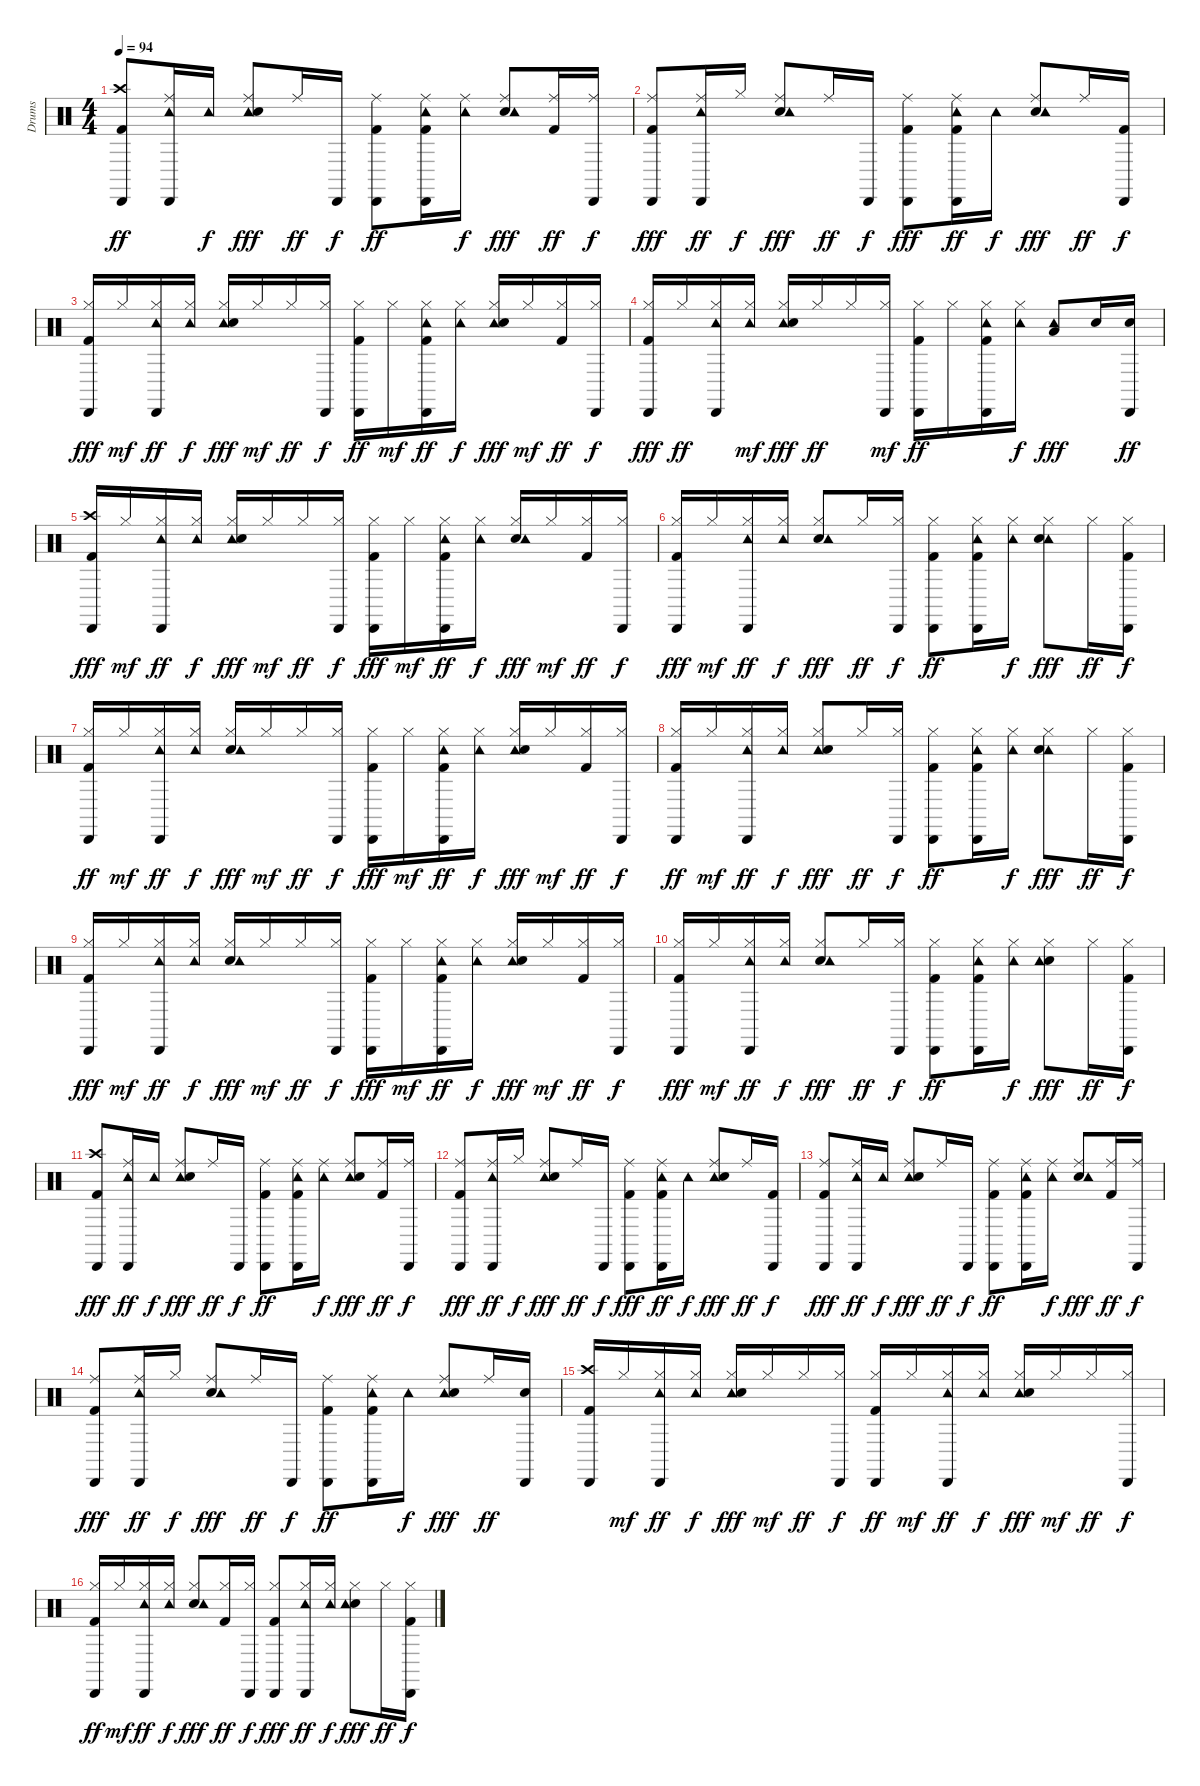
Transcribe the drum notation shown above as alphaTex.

\track ("Drums" "Drums") {instrument percussion}
\staff {score}
\articulation defaults
\ts (4 4)
\tempo 94
\clef neutral
\ks c
("Kick (hit) 2" "Crash high (hit)" "Cabasa (hit)").8{dy ff} ("Tambourine (hit)" "Ride (middle)" "Cabasa (hit)").16 "Tambourine (hit)".16{dy f} ("Ride (middle)" "Tambourine (hit)" "Snare (hit) 2").8{dy fff} "Ride (middle)".16{dy ff} "Cabasa (hit)".16{dy f} ("Kick (hit) 2" "Ride (middle)" "Cabasa (hit)").8{dy ff} ("Ride (middle)" "Cabasa (hit)" "Kick (hit) 2" "Tambourine (hit)").16 ("Ride (middle)" "Tambourine (hit)").16{dy f} ("Ride (middle)" "Snare (hit) 2" "Tambourine (hit)").8{dy fff} ("Kick (hit) 2" "Ride (middle)").16{dy ff} ("Cabasa (hit)" "Ride (middle)").16{dy f} |
("Cabasa (hit)" "Ride (middle)" "Kick (hit) 2").8{dy fff} ("Ride (middle)" "Tambourine (hit)" "Cabasa (hit)").16{dy ff} "Hi-Hat (closed)".16{dy f} ("Snare (hit) 2" "Ride (middle)" "Tambourine (hit)").8{dy fff} "Ride (middle)".16{dy ff} "Cabasa (hit)".16{dy f} ("Ride (middle)" "Cabasa (hit)" "Kick (hit) 2").8{dy fff} ("Ride (middle)" "Cabasa (hit)" "Tambourine (hit)" "Kick (hit) 2").16{dy ff} "Tambourine (hit)".16{dy f} ("Snare (hit) 2" "Ride (middle)" "Tambourine (hit)").8{dy fff} "Ride (middle)".16{dy ff} ("Kick (hit) 2" "Cabasa (hit)").16{dy f} |
("Hi-Hat (closed)" "Cabasa (hit)" "Kick (hit) 2").16{dy fff} "Hi-Hat (closed)".16{dy mf} ("Hi-Hat (closed)" "Tambourine (hit)" "Cabasa (hit)").16{dy ff} ("Tambourine (hit)" "Hi-Hat (closed)").16{dy f} ("Hi-Hat (closed)" "Tambourine (hit)" "Snare (hit) 2").16{dy fff} "Hi-Hat (closed)".16{dy mf} "Hi-Hat (closed)".16{dy ff} ("Hi-Hat (closed)" "Cabasa (hit)").16{dy f} ("Kick (hit) 2" "Hi-Hat (closed)" "Cabasa (hit)").16{dy ff} "Hi-Hat (closed)".16{dy mf} ("Cabasa (hit)" "Hi-Hat (closed)" "Tambourine (hit)" "Kick (hit) 2").16{dy ff} ("Hi-Hat (closed)" "Tambourine (hit)").16{dy f} ("Hi-Hat (closed)" "Tambourine (hit)" "Snare (hit) 2").16{dy fff} "Hi-Hat (closed)".16{dy mf} ("Hi-Hat (closed)" "Kick (hit) 2").16{dy ff} ("Hi-Hat (closed)" "Cabasa (hit)").16{dy f} |
("Cabasa (hit)" "Kick (hit) 2" "Hi-Hat (closed)").16{dy fff} "Hi-Hat (closed)".16{dy ff} ("Cabasa (hit)" "Hi-Hat (closed)" "Tambourine (hit)").16 ("Tambourine (hit)" "Hi-Hat (closed)").16{dy mf} ("Tambourine (hit)" "Snare (hit) 2" "Hi-Hat (closed)").16{dy fff} "Hi-Hat (closed)".16{dy ff} "Hi-Hat (closed)".16 ("Cabasa (hit)" "Hi-Hat (closed)").16{dy mf} ("Hi-Hat (closed)" "Kick (hit) 2" "Cabasa (hit)").16{dy ff} "Hi-Hat (closed)".16 ("Hi-Hat (closed)" "Kick (hit) 2" "Tambourine (hit)" "Cabasa (hit)").16 ("Tambourine (hit)" "Hi-Hat (closed)").16{dy f} ("Tambourine (hit)" "Low Floor Tom (hit)").8{dy fff} "Snare (hit) 2".16 ("Cabasa (hit)" "Snare (hit) 2").16{dy ff} |
("Cabasa (hit)" "Kick (hit) 2" "Crash high (hit)").16{dy fff} "Hi-Hat (closed)".16{dy mf} ("Tambourine (hit)" "Hi-Hat (closed)" "Cabasa (hit)").16{dy ff} ("Tambourine (hit)" "Hi-Hat (closed)").16{dy f} ("Tambourine (hit)" "Hi-Hat (closed)" "Snare (hit) 2").16{dy fff} "Hi-Hat (closed)".16{dy mf} "Hi-Hat (closed)".16{dy ff} ("Cabasa (hit)" "Hi-Hat (closed)").16{dy f} ("Cabasa (hit)" "Kick (hit) 2" "Hi-Hat (closed)").16{dy fff} "Hi-Hat (closed)".16{dy mf} ("Cabasa (hit)" "Tambourine (hit)" "Kick (hit) 2" "Hi-Hat (closed)").16{dy ff} ("Tambourine (hit)" "Hi-Hat (closed)").16{dy f} ("Snare (hit) 2" "Hi-Hat (closed)" "Tambourine (hit)").16{dy fff} "Hi-Hat (closed)".16{dy mf} ("Hi-Hat (closed)" "Kick (hit) 2").16{dy ff} ("Cabasa (hit)" "Hi-Hat (closed)").16{dy f} |
("Kick (hit) 2" "Cabasa (hit)" "Hi-Hat (closed)").16{dy fff} "Hi-Hat (closed)".16{dy mf} ("Hi-Hat (closed)" "Cabasa (hit)" "Tambourine (hit)").16{dy ff} ("Tambourine (hit)" "Hi-Hat (closed)").16{dy f} ("Hi-Hat (closed)" "Snare (hit) 2" "Tambourine (hit)").8{dy fff} "Hi-Hat (closed)".16{dy ff} ("Hi-Hat (closed)" "Cabasa (hit)").16{dy f} ("Kick (hit) 2" "Hi-Hat (closed)" "Cabasa (hit)").8{dy ff} ("Kick (hit) 2" "Tambourine (hit)" "Cabasa (hit)" "Hi-Hat (closed)").16 ("Tambourine (hit)" "Hi-Hat (closed)").16{dy f} ("Tambourine (hit)" "Snare (hit) 2" "Hi-Hat (closed)").8{dy fff} "Hi-Hat (closed)".16{dy ff} ("Kick (hit) 2" "Cabasa (hit)" "Hi-Hat (closed)").16{dy f} |
("Kick (hit) 2" "Hi-Hat (closed)" "Cabasa (hit)").16{dy ff} "Hi-Hat (closed)".16{dy mf} ("Cabasa (hit)" "Hi-Hat (closed)" "Tambourine (hit)").16{dy ff} ("Tambourine (hit)" "Hi-Hat (closed)").16{dy f} ("Hi-Hat (closed)" "Snare (hit) 2" "Tambourine (hit)").16{dy fff} "Hi-Hat (closed)".16{dy mf} "Hi-Hat (closed)".16{dy ff} ("Cabasa (hit)" "Hi-Hat (closed)").16{dy f} ("Cabasa (hit)" "Hi-Hat (closed)" "Kick (hit) 2").16{dy fff} "Hi-Hat (closed)".16{dy mf} ("Kick (hit) 2" "Cabasa (hit)" "Tambourine (hit)" "Hi-Hat (closed)").16{dy ff} ("Tambourine (hit)" "Hi-Hat (closed)").16{dy f} ("Tambourine (hit)" "Snare (hit) 2" "Hi-Hat (closed)").16{dy fff} "Hi-Hat (closed)".16{dy mf} ("Hi-Hat (closed)" "Kick (hit) 2").16{dy ff} ("Cabasa (hit)" "Hi-Hat (closed)").16{dy f} |
("Kick (hit) 2" "Hi-Hat (closed)" "Cabasa (hit)").16{dy ff} "Hi-Hat (closed)".16{dy mf} ("Hi-Hat (closed)" "Tambourine (hit)" "Cabasa (hit)").16{dy ff} ("Hi-Hat (closed)" "Tambourine (hit)").16{dy f} ("Tambourine (hit)" "Hi-Hat (closed)" "Snare (hit) 2").8{dy fff} "Hi-Hat (closed)".16{dy ff} ("Cabasa (hit)" "Hi-Hat (closed)").16{dy f} ("Kick (hit) 2" "Hi-Hat (closed)" "Cabasa (hit)").8{dy ff} ("Cabasa (hit)" "Tambourine (hit)" "Kick (hit) 2" "Hi-Hat (closed)").16 ("Tambourine (hit)" "Hi-Hat (closed)").16{dy f} ("Tambourine (hit)" "Snare (hit) 2" "Hi-Hat (closed)").8{dy fff} "Hi-Hat (closed)".16{dy ff} ("Cabasa (hit)" "Kick (hit) 2" "Hi-Hat (closed)").16{dy f} |
("Cabasa (hit)" "Kick (hit) 2" "Hi-Hat (closed)").16{dy fff} "Hi-Hat (closed)".16{dy mf} ("Cabasa (hit)" "Tambourine (hit)" "Hi-Hat (closed)").16{dy ff} ("Tambourine (hit)" "Hi-Hat (closed)").16{dy f} ("Snare (hit) 2" "Tambourine (hit)" "Hi-Hat (closed)").16{dy fff} "Hi-Hat (closed)".16{dy mf} "Hi-Hat (closed)".16{dy ff} ("Cabasa (hit)" "Hi-Hat (closed)").16{dy f} ("Hi-Hat (closed)" "Cabasa (hit)" "Kick (hit) 2").16{dy fff} "Hi-Hat (closed)".16{dy mf} ("Hi-Hat (closed)" "Kick (hit) 2" "Tambourine (hit)" "Cabasa (hit)").16{dy ff} ("Tambourine (hit)" "Hi-Hat (closed)").16{dy f} ("Tambourine (hit)" "Hi-Hat (closed)" "Snare (hit) 2").16{dy fff} "Hi-Hat (closed)".16{dy mf} ("Kick (hit) 2" "Hi-Hat (closed)").16{dy ff} ("Hi-Hat (closed)" "Cabasa (hit)").16{dy f} |
("Cabasa (hit)" "Kick (hit) 2" "Hi-Hat (closed)").16{dy fff} "Hi-Hat (closed)".16{dy mf} ("Cabasa (hit)" "Tambourine (hit)" "Hi-Hat (closed)").16{dy ff} ("Tambourine (hit)" "Hi-Hat (closed)").16{dy f} ("Snare (hit) 2" "Hi-Hat (closed)" "Tambourine (hit)").8{dy fff} "Hi-Hat (closed)".16{dy ff} ("Hi-Hat (closed)" "Cabasa (hit)").16{dy f} ("Kick (hit) 2" "Hi-Hat (closed)" "Cabasa (hit)").8{dy ff} ("Tambourine (hit)" "Cabasa (hit)" "Hi-Hat (closed)" "Kick (hit) 2").16 ("Tambourine (hit)" "Hi-Hat (closed)").16{dy f} ("Snare (hit) 2" "Tambourine (hit)" "Hi-Hat (closed)").8{dy fff} "Hi-Hat (closed)".16{dy ff} ("Kick (hit) 2" "Hi-Hat (closed)" "Cabasa (hit)").16{dy f} |
("Cabasa (hit)" "Crash high (hit)" "Kick (hit) 2").8{dy fff} ("Cabasa (hit)" "Ride (middle)" "Tambourine (hit)").16{dy ff} "Tambourine (hit)".16{dy f} ("Tambourine (hit)" "Ride (middle)" "Snare (hit) 2").8{dy fff} "Ride (middle)".16{dy ff} "Cabasa (hit)".16{dy f} ("Ride (middle)" "Kick (hit) 2" "Cabasa (hit)").8{dy ff} ("Ride (middle)" "Cabasa (hit)" "Tambourine (hit)" "Kick (hit) 2").16 ("Ride (middle)" "Tambourine (hit)").16{dy f} ("Tambourine (hit)" "Ride (middle)" "Snare (hit) 2").8{dy fff} ("Ride (middle)" "Kick (hit) 2").16{dy ff} ("Cabasa (hit)" "Ride (middle)").16{dy f} |
("Kick (hit) 2" "Cabasa (hit)" "Ride (middle)").8{dy fff} ("Ride (middle)" "Cabasa (hit)" "Tambourine (hit)").16{dy ff} "Hi-Hat (closed)".16{dy f} ("Tambourine (hit)" "Ride (middle)" "Snare (hit) 2").8{dy fff} "Ride (middle)".16{dy ff} "Cabasa (hit)".16{dy f} ("Cabasa (hit)" "Kick (hit) 2" "Ride (middle)").8{dy fff} ("Tambourine (hit)" "Cabasa (hit)" "Ride (middle)" "Kick (hit) 2").16{dy ff} "Tambourine (hit)".16{dy f} ("Tambourine (hit)" "Ride (middle)" "Snare (hit) 2").8{dy fff} "Ride (middle)".16{dy ff} ("Cabasa (hit)" "Kick (hit) 2").16{dy f} |
("Kick (hit) 2" "Cabasa (hit)" "Ride (middle)").8{dy fff} ("Cabasa (hit)" "Tambourine (hit)" "Ride (middle)").16{dy ff} "Tambourine (hit)".16{dy f} ("Tambourine (hit)" "Ride (middle)" "Snare (hit) 2").8{dy fff} "Ride (middle)".16{dy ff} "Cabasa (hit)".16{dy f} ("Ride (middle)" "Kick (hit) 2" "Cabasa (hit)").8{dy ff} ("Tambourine (hit)" "Cabasa (hit)" "Ride (middle)" "Kick (hit) 2").16 ("Ride (middle)" "Tambourine (hit)").16{dy f} ("Ride (middle)" "Snare (hit) 2" "Tambourine (hit)").8{dy fff} ("Ride (middle)" "Kick (hit) 2").16{dy ff} ("Ride (middle)" "Cabasa (hit)").16{dy f} |
("Kick (hit) 2" "Cabasa (hit)" "Ride (middle)").8{dy fff} ("Cabasa (hit)" "Tambourine (hit)" "Ride (middle)").16{dy ff} "Hi-Hat (closed)".16{dy f} ("Snare (hit) 2" "Ride (middle)" "Tambourine (hit)").8{dy fff} "Ride (middle)".16{dy ff} "Cabasa (hit)".16{dy f} ("Ride (middle)" "Kick (hit) 2" "Cabasa (hit)").8{dy ff} ("Tambourine (hit)" "Ride (middle)" "Cabasa (hit)" "Kick (hit) 2").16 "Tambourine (hit)".16{dy f} ("Ride (middle)" "Tambourine (hit)" "Snare (hit) 2").8{dy fff} "Ride (middle)".16{dy ff} ("Snare (hit) 2" "Cabasa (hit)").16 |
("Kick (hit) 2" "Crash high (hit)" "Cabasa (hit)").16 "Hi-Hat (closed)".16{dy mf} ("Hi-Hat (closed)" "Cabasa (hit)" "Tambourine (hit)").16{dy ff} ("Tambourine (hit)" "Hi-Hat (closed)").16{dy f} ("Hi-Hat (closed)" "Tambourine (hit)" "Snare (hit) 2").16{dy fff} "Hi-Hat (closed)".16{dy mf} "Hi-Hat (closed)".16{dy ff} ("Hi-Hat (closed)" "Cabasa (hit)").16{dy f} ("Kick (hit) 2" "Hi-Hat (closed)" "Cabasa (hit)").16{dy ff} "Hi-Hat (closed)".16{dy mf} ("Cabasa (hit)" "Tambourine (hit)" "Hi-Hat (closed)").16{dy ff} ("Hi-Hat (closed)" "Tambourine (hit)").16{dy f} ("Hi-Hat (closed)" "Tambourine (hit)" "Snare (hit) 2").16{dy fff} "Hi-Hat (closed)".16{dy mf} "Hi-Hat (closed)".16{dy ff} ("Hi-Hat (closed)" "Cabasa (hit)").16{dy f} |
("Kick (hit) 2" "Hi-Hat (closed)" "Cabasa (hit)").16{dy ff} "Hi-Hat (closed)".16{dy mf} ("Tambourine (hit)" "Cabasa (hit)" "Hi-Hat (closed)").16{dy ff} ("Tambourine (hit)" "Hi-Hat (closed)").16{dy f} ("Hi-Hat (closed)" "Snare (hit) 2" "Tambourine (hit)").8{dy fff} ("Hi-Hat (closed)" "Kick (hit) 2").16{dy ff} ("Hi-Hat (closed)" "Cabasa (hit)").16{dy f} ("Kick (hit) 2" "Cabasa (hit)" "Hi-Hat (closed)").8{dy fff} ("Hi-Hat (closed)" "Cabasa (hit)" "Tambourine (hit)").16{dy ff} ("Tambourine (hit)" "Hi-Hat (closed)").16{dy f} ("Hi-Hat (closed)" "Snare (hit) 2" "Tambourine (hit)").8{dy fff} "Hi-Hat (closed)".16{dy ff} ("Cabasa (hit)" "Hi-Hat (closed)" "Kick (hit) 2").16{dy f}
